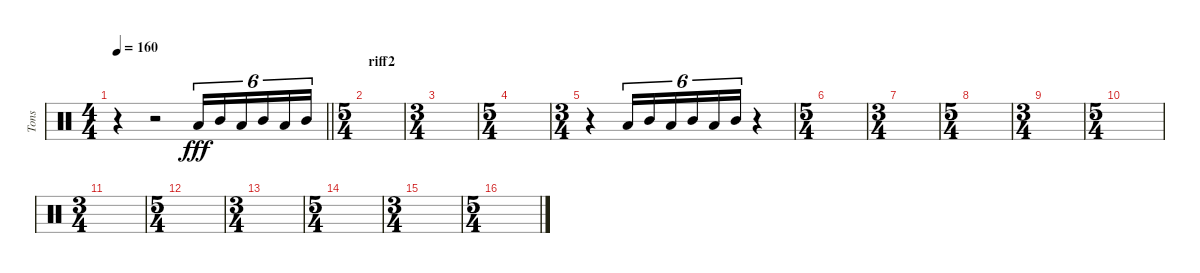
\track ("Tons" "Tons") {instrument percussion}
\staff {score}
\articulation defaults
\ts (4 4)
\tempo 160
\clef neutral
\barLineRight lightlight
\ks c
r.4{dy fff} r.2 "Low Tom (hit)".16{tu (6 4)} "Mid Tom (hit)".16{tu (6 4)} "Low Tom (hit)".16{tu (6 4)} "Mid Tom (hit)".16{tu (6 4)} "Low Tom (hit)".16{tu (6 4)} "Mid Tom (hit)".16{tu (6 4)} |
\ts (5 4)
\section ("" "riff2")
|
\ts (3 4)
|
\ts (5 4)
|
\ts (3 4)
r.4 "Low Tom (hit)".16{tu (6 4)} "Mid Tom (hit)".16{tu (6 4)} "Low Tom (hit)".16{tu (6 4)} "Mid Tom (hit)".16{tu (6 4)} "Low Tom (hit)".16{tu (6 4)} "Mid Tom (hit)".16{tu (6 4)} r.4 |
\ts (5 4)
|
\ts (3 4)
|
\ts (5 4)
|
\ts (3 4)
|
\ts (5 4)
|
\ts (3 4)
|
\ts (5 4)
|
\ts (3 4)
|
\ts (5 4)
|
\ts (3 4)
|
\ts (5 4)
